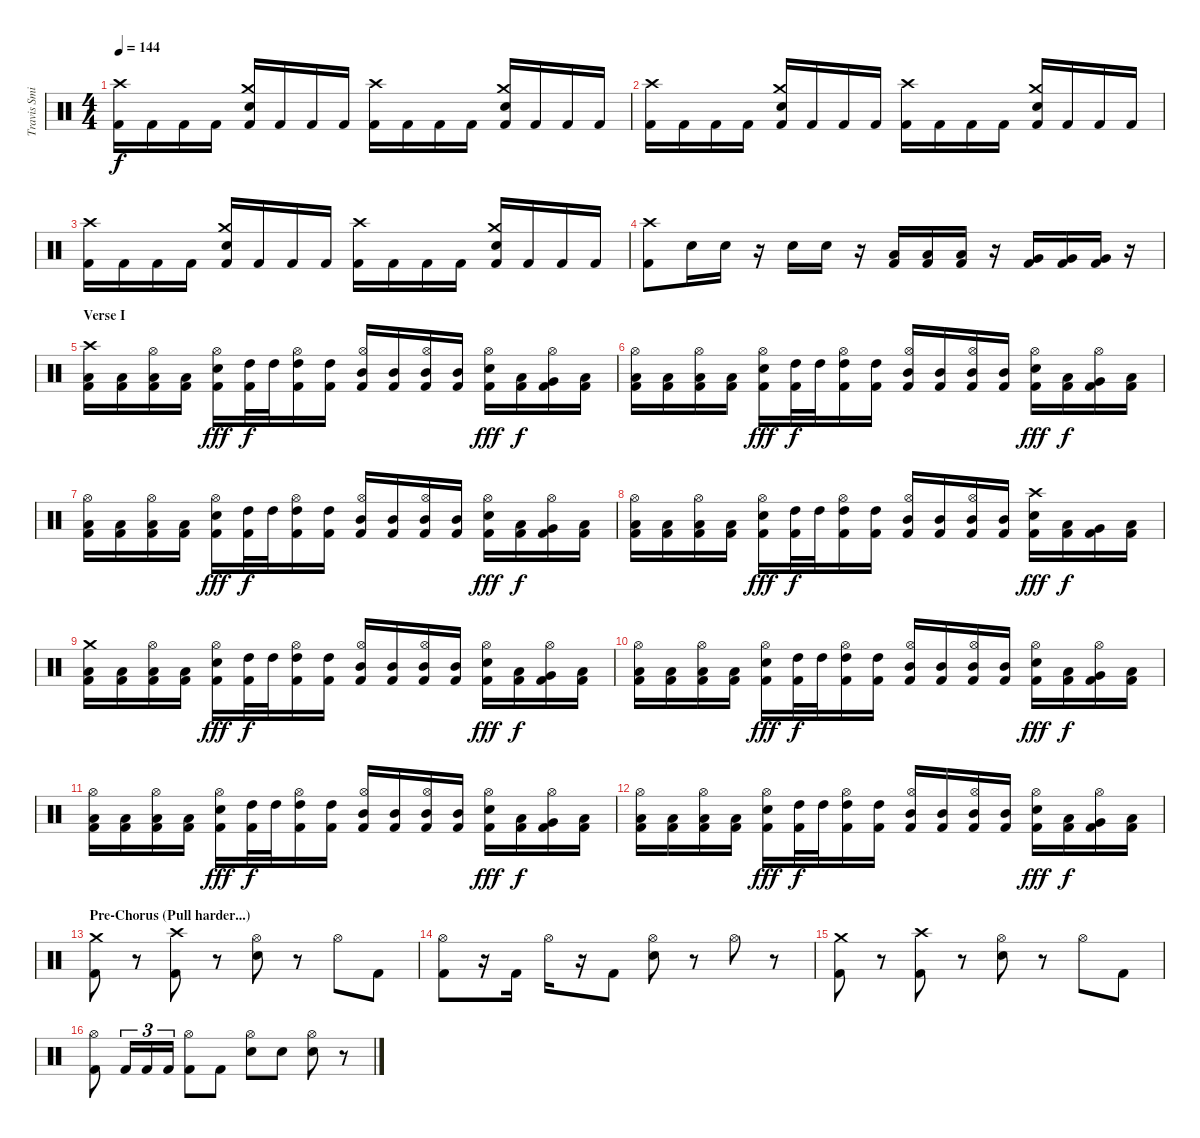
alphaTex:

\track ("Travis Smith" "Travis Smi") {instrument percussion}
\staff {score}
\articulation defaults
\ts (4 4)
\tempo 144
\clef neutral
\ks c
("Crash high (hit)" "Kick (hit) 2").16{dy f} "Kick (hit) 2".16 "Kick (hit) 2".16 "Kick (hit) 2".16 ("Crash medium (hit)" "Electric Snare (hit)" "Kick (hit) 2").16 "Kick (hit) 2".16 "Kick (hit) 2".16 "Kick (hit) 2".16 ("Crash high (hit)" "Kick (hit) 2").16 "Kick (hit) 2".16 "Kick (hit) 2".16 "Kick (hit) 2".16 ("Crash medium (hit)" "Electric Snare (hit)" "Kick (hit) 2").16 "Kick (hit) 2".16 "Kick (hit) 2".16 "Kick (hit) 2".16 |
("Crash high (hit)" "Kick (hit) 2").16 "Kick (hit) 2".16 "Kick (hit) 2".16 "Kick (hit) 2".16 ("Crash medium (hit)" "Electric Snare (hit)" "Kick (hit) 2").16 "Kick (hit) 2".16 "Kick (hit) 2".16 "Kick (hit) 2".16 ("Crash high (hit)" "Kick (hit) 2").16 "Kick (hit) 2".16 "Kick (hit) 2".16 "Kick (hit) 2".16 ("Crash medium (hit)" "Electric Snare (hit)" "Kick (hit) 2").16 "Kick (hit) 2".16 "Kick (hit) 2".16 "Kick (hit) 2".16 |
("Crash high (hit)" "Kick (hit) 2").16 "Kick (hit) 2".16 "Kick (hit) 2".16 "Kick (hit) 2".16 ("Crash medium (hit)" "Electric Snare (hit)" "Kick (hit) 2").16 "Kick (hit) 2".16 "Kick (hit) 2".16 "Kick (hit) 2".16 ("Crash high (hit)" "Kick (hit) 2").16 "Kick (hit) 2".16 "Kick (hit) 2".16 "Kick (hit) 2".16 ("Crash medium (hit)" "Electric Snare (hit)" "Kick (hit) 2").16 "Kick (hit) 2".16 "Kick (hit) 2".16 "Kick (hit) 2".16 |
("Crash high (hit)" "Kick (hit) 2").8 "Electric Snare (hit)".16 "Electric Snare (hit)".16 r.16 "Electric Snare (hit)".16 "Electric Snare (hit)".16 r.16 ("Low Tom (hit)" "Kick (hit) 2").16 ("Low Tom (hit)" "Kick (hit) 2").16 ("Low Tom (hit)" "Kick (hit) 2").16 r.16 ("Very Low Tom (hit)" "Kick (hit) 2").16 ("Very Low Tom (hit)" "Kick (hit) 2").16 ("Very Low Tom (hit)" "Kick (hit) 2").16 r.16 |
\section ("" "Verse I")
("Crash high (hit)" "Low Tom (hit)" "Kick (hit) 2").16 ("Low Tom (hit)" "Kick (hit) 2").16 ("Hi-Hat (open)" "Low Tom (hit)" "Kick (hit) 2").16 ("Low Tom (hit)" "Kick (hit) 2").16 ("Hi-Hat (open)" "Electric Snare (hit)" "Kick (hit) 2").16{dy fff} ("High Tom (hit)" "Kick (hit) 2").32{dy f} "High Tom (hit)".32 ("Hi-Hat (open)" "High Tom (hit)" "Kick (hit) 2").16 ("High Tom (hit)" "Kick (hit) 2").16 ("Hi-Hat (open)" "Mid Tom (hit)" "Kick (hit) 2").16 ("Mid Tom (hit)" "Kick (hit) 2").16 ("Hi-Hat (open)" "Mid Tom (hit)" "Kick (hit) 2").16 ("Mid Tom (hit)" "Kick (hit) 2").16 ("Hi-Hat (open)" "Electric Snare (hit)" "Kick (hit) 2").16{dy fff} ("Low Tom (hit)" "Kick (hit) 2").16{dy f} ("Hi-Hat (open)" "Very Low Tom (hit)" "Kick (hit) 2").16 ("Low Floor Tom (hit)" "Kick (hit) 2").16 |
("Hi-Hat (open)" "Low Tom (hit)" "Kick (hit) 2").16 ("Low Tom (hit)" "Kick (hit) 2").16 ("Hi-Hat (open)" "Low Tom (hit)" "Kick (hit) 2").16 ("Low Tom (hit)" "Kick (hit) 2").16 ("Hi-Hat (open)" "Electric Snare (hit)" "Kick (hit) 2").16{dy fff} ("High Tom (hit)" "Kick (hit) 2").32{dy f} "High Tom (hit)".32 ("Hi-Hat (open)" "High Tom (hit)" "Kick (hit) 2").16 ("High Tom (hit)" "Kick (hit) 2").16 ("Hi-Hat (open)" "Mid Tom (hit)" "Kick (hit) 2").16 ("Mid Tom (hit)" "Kick (hit) 2").16 ("Hi-Hat (open)" "Mid Tom (hit)" "Kick (hit) 2").16 ("Mid Tom (hit)" "Kick (hit) 2").16 ("Hi-Hat (open)" "Electric Snare (hit)" "Kick (hit) 2").16{dy fff} ("Low Tom (hit)" "Kick (hit) 2").16{dy f} ("Hi-Hat (open)" "Very Low Tom (hit)" "Kick (hit) 2").16 ("Low Floor Tom (hit)" "Kick (hit) 2").16 |
("Hi-Hat (open)" "Low Tom (hit)" "Kick (hit) 2").16 ("Low Tom (hit)" "Kick (hit) 2").16 ("Hi-Hat (open)" "Low Tom (hit)" "Kick (hit) 2").16 ("Low Tom (hit)" "Kick (hit) 2").16 ("Hi-Hat (open)" "Electric Snare (hit)" "Kick (hit) 2").16{dy fff} ("High Tom (hit)" "Kick (hit) 2").32{dy f} "High Tom (hit)".32 ("Hi-Hat (open)" "High Tom (hit)" "Kick (hit) 2").16 ("High Tom (hit)" "Kick (hit) 2").16 ("Hi-Hat (open)" "Mid Tom (hit)" "Kick (hit) 2").16 ("Mid Tom (hit)" "Kick (hit) 2").16 ("Hi-Hat (open)" "Mid Tom (hit)" "Kick (hit) 2").16 ("Mid Tom (hit)" "Kick (hit) 2").16 ("Hi-Hat (open)" "Electric Snare (hit)" "Kick (hit) 2").16{dy fff} ("Low Tom (hit)" "Kick (hit) 2").16{dy f} ("Hi-Hat (open)" "Very Low Tom (hit)" "Kick (hit) 2").16 ("Low Floor Tom (hit)" "Kick (hit) 2").16 |
("Hi-Hat (open)" "Low Tom (hit)" "Kick (hit) 2").16 ("Low Tom (hit)" "Kick (hit) 2").16 ("Hi-Hat (open)" "Low Tom (hit)" "Kick (hit) 2").16 ("Low Tom (hit)" "Kick (hit) 2").16 ("Hi-Hat (open)" "Electric Snare (hit)" "Kick (hit) 2").16{dy fff} ("High Tom (hit)" "Kick (hit) 2").32{dy f} "High Tom (hit)".32 ("Hi-Hat (open)" "High Tom (hit)" "Kick (hit) 2").16 ("High Tom (hit)" "Kick (hit) 2").16 ("Hi-Hat (open)" "Mid Tom (hit)" "Kick (hit) 2").16 ("Mid Tom (hit)" "Kick (hit) 2").16 ("Hi-Hat (open)" "Mid Tom (hit)" "Kick (hit) 2").16 ("Mid Tom (hit)" "Kick (hit) 2").16 ("Crash high (hit)" "Electric Snare (hit)" "Kick (hit) 2").16{dy fff} ("Low Tom (hit)" "Kick (hit) 2").16{dy f} ("Very Low Tom (hit)" "Kick (hit) 2").16 ("Low Floor Tom (hit)" "Kick (hit) 2").16 |
("Crash medium (hit)" "Low Tom (hit)" "Kick (hit) 2").16 ("Low Tom (hit)" "Kick (hit) 2").16 ("Hi-Hat (open)" "Low Tom (hit)" "Kick (hit) 2").16 ("Low Tom (hit)" "Kick (hit) 2").16 ("Hi-Hat (open)" "Electric Snare (hit)" "Kick (hit) 2").16{dy fff} ("High Tom (hit)" "Kick (hit) 2").32{dy f} "High Tom (hit)".32 ("Hi-Hat (open)" "High Tom (hit)" "Kick (hit) 2").16 ("High Tom (hit)" "Kick (hit) 2").16 ("Hi-Hat (open)" "Mid Tom (hit)" "Kick (hit) 2").16 ("Mid Tom (hit)" "Kick (hit) 2").16 ("Hi-Hat (open)" "Mid Tom (hit)" "Kick (hit) 2").16 ("Mid Tom (hit)" "Kick (hit) 2").16 ("Hi-Hat (open)" "Electric Snare (hit)" "Kick (hit) 2").16{dy fff} ("Low Tom (hit)" "Kick (hit) 2").16{dy f} ("Hi-Hat (open)" "Very Low Tom (hit)" "Kick (hit) 2").16 ("Low Floor Tom (hit)" "Kick (hit) 2").16 |
("Hi-Hat (open)" "Low Tom (hit)" "Kick (hit) 2").16 ("Low Tom (hit)" "Kick (hit) 2").16 ("Hi-Hat (open)" "Low Tom (hit)" "Kick (hit) 2").16 ("Low Tom (hit)" "Kick (hit) 2").16 ("Hi-Hat (open)" "Electric Snare (hit)" "Kick (hit) 2").16{dy fff} ("High Tom (hit)" "Kick (hit) 2").32{dy f} "High Tom (hit)".32 ("Hi-Hat (open)" "High Tom (hit)" "Kick (hit) 2").16 ("High Tom (hit)" "Kick (hit) 2").16 ("Hi-Hat (open)" "Mid Tom (hit)" "Kick (hit) 2").16 ("Mid Tom (hit)" "Kick (hit) 2").16 ("Hi-Hat (open)" "Mid Tom (hit)" "Kick (hit) 2").16 ("Mid Tom (hit)" "Kick (hit) 2").16 ("Hi-Hat (open)" "Electric Snare (hit)" "Kick (hit) 2").16{dy fff} ("Low Tom (hit)" "Kick (hit) 2").16{dy f} ("Hi-Hat (open)" "Very Low Tom (hit)" "Kick (hit) 2").16 ("Low Floor Tom (hit)" "Kick (hit) 2").16 |
("Hi-Hat (open)" "Low Tom (hit)" "Kick (hit) 2").16 ("Low Tom (hit)" "Kick (hit) 2").16 ("Hi-Hat (open)" "Low Tom (hit)" "Kick (hit) 2").16 ("Low Tom (hit)" "Kick (hit) 2").16 ("Hi-Hat (open)" "Electric Snare (hit)" "Kick (hit) 2").16{dy fff} ("High Tom (hit)" "Kick (hit) 2").32{dy f} "High Tom (hit)".32 ("Hi-Hat (open)" "High Tom (hit)" "Kick (hit) 2").16 ("High Tom (hit)" "Kick (hit) 2").16 ("Hi-Hat (open)" "Mid Tom (hit)" "Kick (hit) 2").16 ("Mid Tom (hit)" "Kick (hit) 2").16 ("Hi-Hat (open)" "Mid Tom (hit)" "Kick (hit) 2").16 ("Mid Tom (hit)" "Kick (hit) 2").16 ("Hi-Hat (open)" "Electric Snare (hit)" "Kick (hit) 2").16{dy fff} ("Low Tom (hit)" "Kick (hit) 2").16{dy f} ("Hi-Hat (open)" "Very Low Tom (hit)" "Kick (hit) 2").16 ("Low Floor Tom (hit)" "Kick (hit) 2").16 |
("Hi-Hat (open)" "Low Tom (hit)" "Kick (hit) 2").16 ("Low Tom (hit)" "Kick (hit) 2").16 ("Hi-Hat (open)" "Low Tom (hit)" "Kick (hit) 2").16 ("Low Tom (hit)" "Kick (hit) 2").16 ("Hi-Hat (open)" "Electric Snare (hit)" "Kick (hit) 2").16{dy fff} ("High Tom (hit)" "Kick (hit) 2").32{dy f} "High Tom (hit)".32 ("Hi-Hat (open)" "High Tom (hit)" "Kick (hit) 2").16 ("High Tom (hit)" "Kick (hit) 2").16 ("Hi-Hat (open)" "Mid Tom (hit)" "Kick (hit) 2").16 ("Mid Tom (hit)" "Kick (hit) 2").16 ("Hi-Hat (open)" "Mid Tom (hit)" "Kick (hit) 2").16 ("Mid Tom (hit)" "Kick (hit) 2").16 ("Hi-Hat (open)" "Electric Snare (hit)" "Kick (hit) 2").16{dy fff} ("Low Tom (hit)" "Kick (hit) 2").16{dy f} ("Hi-Hat (open)" "Very Low Tom (hit)" "Kick (hit) 2").16 ("Low Floor Tom (hit)" "Kick (hit) 2").16 |
\section ("" "Pre-Chorus (Pull harder...)")
("Crash medium (hit)" "Kick (hit) 2").8 r.8 ("Crash high (hit)" "Kick (hit) 2").8 r.8 ("Hi-Hat (open)" "Electric Snare (hit)").8 r.8 "Hi-Hat (open)".8 "Kick (hit) 2".8 |
("Hi-Hat (open)" "Kick (hit) 2").8 r.16 "Kick (hit) 2".16 "Hi-Hat (open)".16 r.16 "Kick (hit) 2".8 ("Hi-Hat (open)" "Electric Snare (hit)").8 r.8 "Hi-Hat (open)".8 r.8 |
("Crash medium (hit)" "Kick (hit) 2").8 r.8 ("Crash high (hit)" "Kick (hit) 2").8 r.8 ("Hi-Hat (open)" "Electric Snare (hit)").8 r.8 "Hi-Hat (open)".8 "Kick (hit) 2".8 |
("Hi-Hat (open)" "Kick (hit) 2").8 "Kick (hit) 2".16{tu (3 2)} "Kick (hit) 2".16{tu (3 2)} "Kick (hit) 2".16{tu (3 2)} ("Hi-Hat (open)" "Kick (hit) 2").8 "Kick (hit) 2".8 ("Hi-Hat (open)" "Electric Snare (hit)").8 "Electric Snare (hit)".8 ("Hi-Hat (open)" "Electric Snare (hit)").8 r.8
